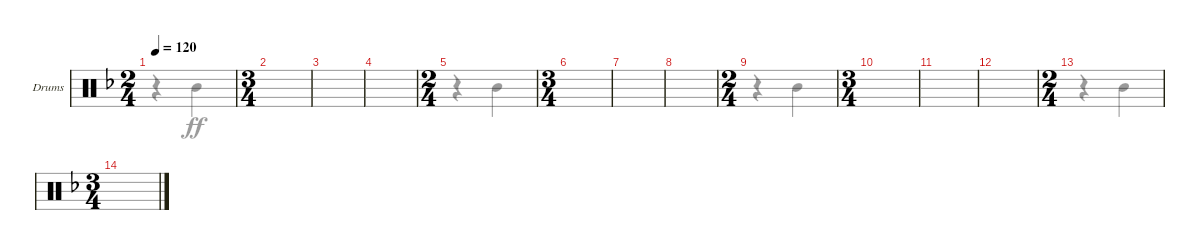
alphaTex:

\defaultSystemsLayout 4
\bracketExtendMode groupsimilarinstruments
\firstSystemTrackNameOrientation horizontal
\otherSystemsTrackNameOrientation horizontal
\track ("Drumkit" "Drums") {instrument percussion}
\staff {score}
\articulation defaults
\voice
\ts (2 4)
\tempo 120
\clef neutral
\ks f
|
\ts (3 4)
|
|
|
\ts (2 4)
|
\ts (3 4)
|
|
|
\ts (2 4)
|
\ts (3 4)
|
|
|
\ts (2 4)
|
\ts (3 4)
|
|
\voice
\clef neutral
\ks f
r.4{dy ff} "Mid Tom (hit)".4 |
|
|
|
r.4 "Mid Tom (hit)".4 |
|
|
|
r.4 "Mid Tom (hit)".4 |
|
|
|
r.4 "Mid Tom (hit)".4 |
|
|
